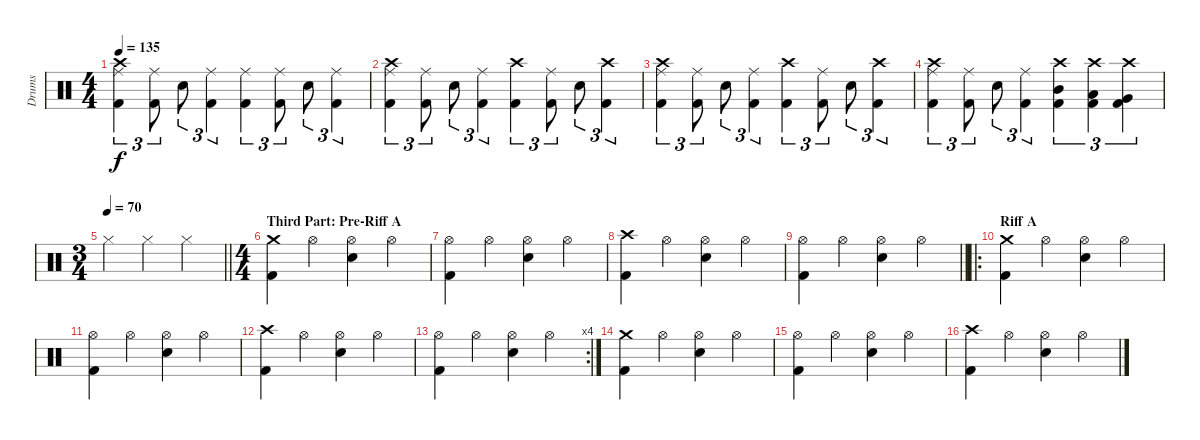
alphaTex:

\track ("Drums" "Drums") {instrument percussion}
\staff {score}
\articulation defaults
\ts (4 4)
\tempo 135
\clef neutral
\ks c
("Crash high (hit)" "Ride (middle)" "Kick (hit) 2").4{tu (3 2) dy f} ("Ride (middle)" "Kick (hit) 2").8{tu (3 2)} "Electric Snare (hit)".8{tu (3 2)} ("Ride (middle)" "Kick (hit) 2").4{tu (3 2)} ("Ride (middle)" "Kick (hit) 2").4{tu (3 2)} ("Ride (middle)" "Kick (hit) 2").8{tu (3 2)} "Electric Snare (hit)".8{tu (3 2)} ("Ride (middle)" "Kick (hit) 2").4{tu (3 2)} |
("Crash high (hit)" "Ride (middle)" "Kick (hit) 2").4{tu (3 2)} ("Ride (middle)" "Kick (hit) 2").8{tu (3 2)} "Electric Snare (hit)".8{tu (3 2)} ("Ride (middle)" "Kick (hit) 2").4{tu (3 2)} ("Crash high (hit)" "Kick (hit) 2").4{tu (3 2)} ("Ride (middle)" "Kick (hit) 2").8{tu (3 2)} "Electric Snare (hit)".8{tu (3 2)} ("Crash high (hit)" "Kick (hit) 2").4{tu (3 2)} |
("Crash high (hit)" "Ride (middle)" "Kick (hit) 2").4{tu (3 2)} ("Ride (middle)" "Kick (hit) 2").8{tu (3 2)} "Electric Snare (hit)".8{tu (3 2)} ("Ride (middle)" "Kick (hit) 2").4{tu (3 2)} ("Crash high (hit)" "Kick (hit) 2").4{tu (3 2)} ("Ride (middle)" "Kick (hit) 2").8{tu (3 2)} "Electric Snare (hit)".8{tu (3 2)} ("Crash high (hit)" "Kick (hit) 2").4{tu (3 2)} |
("Crash high (hit)" "Ride (middle)" "Kick (hit) 2").4{tu (3 2)} ("Ride (middle)" "Kick (hit) 2").8{tu (3 2)} "Electric Snare (hit)".8{tu (3 2)} ("Ride (middle)" "Kick (hit) 2").4{tu (3 2)} ("Crash high (hit)" "Mid Tom (hit)" "Kick (hit) 2").4{tu (3 2)} ("Crash high (hit)" "Low Tom (hit)" "Kick (hit) 2").4{tu (3 2)} ("Crash high (hit)" "Very Low Tom (hit)" "Kick (hit) 2").4{tu (3 2)} |
\ts (3 4)
\tempo 70
\barLineRight lightlight "Hi-Hat (closed)".4 "Hi-Hat (closed)".4 "Hi-Hat (closed)".4
|
\ts (4 4)
\section ("" "Third Part: Pre-Riff A")
("Crash medium (hit)" "Kick (hit) 2").4 "Hi-Hat (open)".4 ("Hi-Hat (open)" "Electric Snare (hit)").4 "Hi-Hat (open)".4 |
("Hi-Hat (open)" "Kick (hit) 2").4 "Hi-Hat (open)".4 ("Hi-Hat (open)" "Electric Snare (hit)").4 "Hi-Hat (open)".4 |
("Crash high (hit)" "Kick (hit) 2").4 "Hi-Hat (open)".4 ("Hi-Hat (open)" "Electric Snare (hit)").4 "Hi-Hat (open)".4 |
\barLineRight lightlight
("Hi-Hat (open)" "Kick (hit) 2").4 "Hi-Hat (open)".4 ("Hi-Hat (open)" "Electric Snare (hit)").4 "Hi-Hat (open)".4 |
\ro
\section ("" "Riff A")
("Crash medium (hit)" "Kick (hit) 2").4 "Hi-Hat (open)".4 ("Hi-Hat (open)" "Electric Snare (hit)").4 "Hi-Hat (open)".4 |
("Hi-Hat (open)" "Kick (hit) 2").4 "Hi-Hat (open)".4 ("Hi-Hat (open)" "Electric Snare (hit)").4 "Hi-Hat (open)".4 |
("Crash high (hit)" "Kick (hit) 2").4 "Hi-Hat (open)".4 ("Hi-Hat (open)" "Electric Snare (hit)").4 "Hi-Hat (open)".4 |
\rc 4
("Hi-Hat (open)" "Kick (hit) 2").4 "Hi-Hat (open)".4 ("Hi-Hat (open)" "Electric Snare (hit)").4 "Hi-Hat (open)".4 |
("Crash medium (hit)" "Kick (hit) 2").4 "Hi-Hat (open)".4 ("Hi-Hat (open)" "Electric Snare (hit)").4 "Hi-Hat (open)".4 |
("Hi-Hat (open)" "Kick (hit) 2").4 "Hi-Hat (open)".4 ("Hi-Hat (open)" "Electric Snare (hit)").4 "Hi-Hat (open)".4 |
("Crash high (hit)" "Kick (hit) 2").4 "Hi-Hat (open)".4 ("Hi-Hat (open)" "Electric Snare (hit)").4 "Hi-Hat (open)".4
